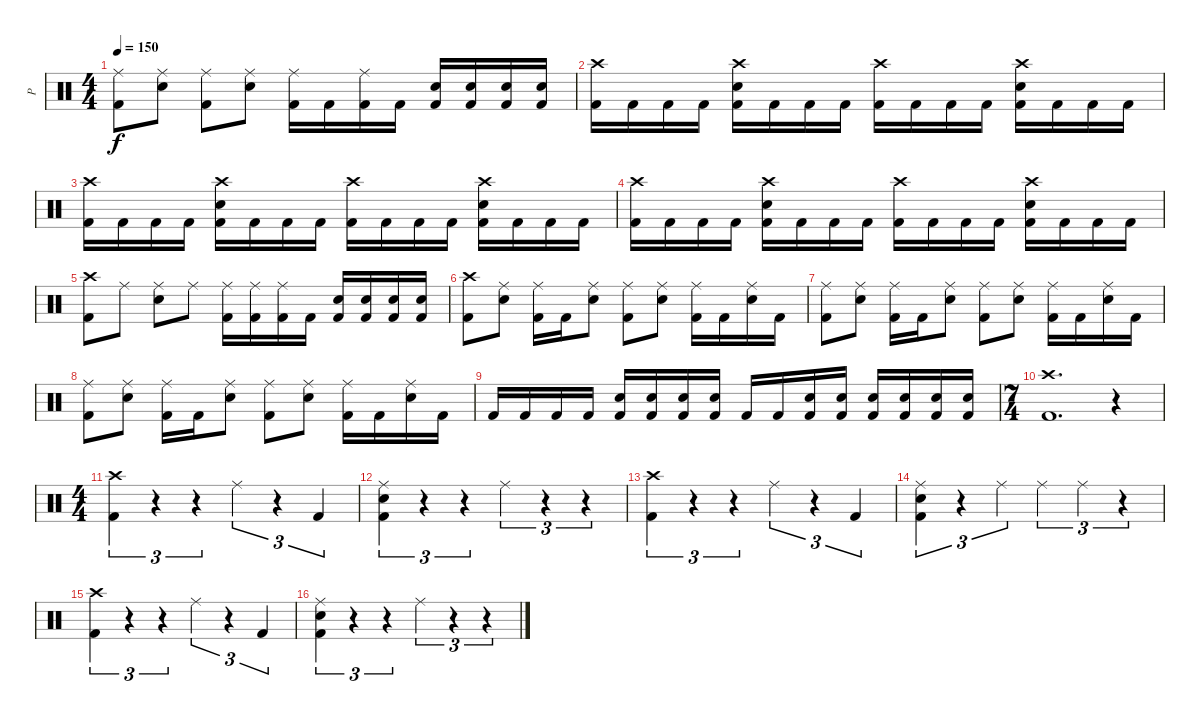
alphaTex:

\track ("P" "P") {instrument percussion}
\staff {score}
\articulation defaults
\ts (4 4)
\tempo 150
\clef neutral
\ks c
("Ride (middle)" "Kick (hit) 2").8{dy f} ("Ride (middle)" "Electric Snare (hit)").8 ("Ride (middle)" "Kick (hit) 2").8 ("Ride (middle)" "Electric Snare (hit)").8 ("Ride (middle)" "Kick (hit) 2").16 "Kick (hit) 2".16 ("Ride (middle)" "Kick (hit) 2").16 "Kick (hit) 2".16 ("Electric Snare (hit)" "Kick (hit) 2").16 ("Electric Snare (hit)" "Kick (hit) 2").16 ("Electric Snare (hit)" "Kick (hit) 2").16 ("Electric Snare (hit)" "Kick (hit) 2").16 |
("Crash high (hit)" "Kick (hit) 2").16 "Kick (hit) 2".16 "Kick (hit) 2".16 "Kick (hit) 2".16 ("Crash high (hit)" "Electric Snare (hit)" "Kick (hit) 2").16 "Kick (hit) 2".16 "Kick (hit) 2".16 "Kick (hit) 2".16 ("Crash high (hit)" "Kick (hit) 2").16 "Kick (hit) 2".16 "Kick (hit) 2".16 "Kick (hit) 2".16 ("Crash high (hit)" "Electric Snare (hit)" "Kick (hit) 2").16 "Kick (hit) 2".16 "Kick (hit) 2".16 "Kick (hit) 2".16 |
("Crash high (hit)" "Kick (hit) 2").16 "Kick (hit) 2".16 "Kick (hit) 2".16 "Kick (hit) 2".16 ("Crash high (hit)" "Electric Snare (hit)" "Kick (hit) 2").16 "Kick (hit) 2".16 "Kick (hit) 2".16 "Kick (hit) 2".16 ("Crash high (hit)" "Kick (hit) 2").16 "Kick (hit) 2".16 "Kick (hit) 2".16 "Kick (hit) 2".16 ("Crash high (hit)" "Electric Snare (hit)" "Kick (hit) 2").16 "Kick (hit) 2".16 "Kick (hit) 2".16 "Kick (hit) 2".16 |
("Crash high (hit)" "Kick (hit) 2").16 "Kick (hit) 2".16 "Kick (hit) 2".16 "Kick (hit) 2".16 ("Crash high (hit)" "Electric Snare (hit)" "Kick (hit) 2").16 "Kick (hit) 2".16 "Kick (hit) 2".16 "Kick (hit) 2".16 ("Crash high (hit)" "Kick (hit) 2").16 "Kick (hit) 2".16 "Kick (hit) 2".16 "Kick (hit) 2".16 ("Crash high (hit)" "Electric Snare (hit)" "Kick (hit) 2").16 "Kick (hit) 2".16 "Kick (hit) 2".16 "Kick (hit) 2".16 |
("Crash high (hit)" "Kick (hit) 2").8 "Ride (middle)".8 ("Ride (middle)" "Electric Snare (hit)").8 "Ride (middle)".8 ("Ride (middle)" "Kick (hit) 2").16 ("Ride (middle)" "Kick (hit) 2").16 ("Ride (middle)" "Kick (hit) 2").16 "Kick (hit) 2".16 ("Electric Snare (hit)" "Kick (hit) 2").16 ("Electric Snare (hit)" "Kick (hit) 2").16 ("Electric Snare (hit)" "Kick (hit) 2").16 ("Electric Snare (hit)" "Kick (hit) 2").16 |
("Crash high (hit)" "Kick (hit) 2").8 ("Ride (middle)" "Electric Snare (hit)").8 ("Ride (middle)" "Kick (hit) 2").16 "Kick (hit) 2".16 ("Ride (middle)" "Electric Snare (hit)").8 ("Ride (middle)" "Kick (hit) 2").8 ("Ride (middle)" "Electric Snare (hit)").8 ("Ride (middle)" "Kick (hit) 2").16 "Kick (hit) 2".16 ("Ride (middle)" "Electric Snare (hit)").16 "Kick (hit) 2".16 |
("Ride (middle)" "Kick (hit) 2").8 ("Ride (middle)" "Electric Snare (hit)").8 ("Ride (middle)" "Kick (hit) 2").16 "Kick (hit) 2".16 ("Ride (middle)" "Electric Snare (hit)").8 ("Ride (middle)" "Kick (hit) 2").8 ("Ride (middle)" "Electric Snare (hit)").8 ("Ride (middle)" "Kick (hit) 2").16 "Kick (hit) 2".16 ("Ride (middle)" "Electric Snare (hit)").16 "Kick (hit) 2".16 |
("Ride (middle)" "Kick (hit) 2").8 ("Ride (middle)" "Electric Snare (hit)").8 ("Ride (middle)" "Kick (hit) 2").16 "Kick (hit) 2".16 ("Ride (middle)" "Electric Snare (hit)").8 ("Ride (middle)" "Kick (hit) 2").8 ("Ride (middle)" "Electric Snare (hit)").8 ("Ride (middle)" "Kick (hit) 2").16 "Kick (hit) 2".16 ("Ride (middle)" "Electric Snare (hit)").16 "Kick (hit) 2".16 |
"Kick (hit) 2".16 "Kick (hit) 2".16 "Kick (hit) 2".16 "Kick (hit) 2".16 ("Electric Snare (hit)" "Kick (hit) 2").16 ("Electric Snare (hit)" "Kick (hit) 2").16 ("Electric Snare (hit)" "Kick (hit) 2").16 ("Electric Snare (hit)" "Kick (hit) 2").16 "Kick (hit) 2".16 "Kick (hit) 2".16 ("Electric Snare (hit)" "Kick (hit) 2").16 ("Electric Snare (hit)" "Kick (hit) 2").16 ("Electric Snare (hit)" "Kick (hit) 2").16 ("Electric Snare (hit)" "Kick (hit) 2").16 ("Electric Snare (hit)" "Kick (hit) 2").16 ("Electric Snare (hit)" "Kick (hit) 2").16 |
\ts (7 4)
("Crash high (hit)" "Kick (hit) 2").1{d} r.4 |
\ts (4 4)
("Crash high (hit)" "Kick (hit) 2").4{tu (3 2)} r.4{tu (3 2)} r.4{tu (3 2)} "Ride (middle)".4{tu (3 2)} r.4{tu (3 2)} "Kick (hit) 2".4{tu (3 2)} |
("Ride (middle)" "Electric Snare (hit)" "Kick (hit) 2").4{tu (3 2)} r.4{tu (3 2)} r.4{tu (3 2)} "Ride (middle)".4{tu (3 2)} r.4{tu (3 2)} r.4{tu (3 2)} |
("Crash high (hit)" "Kick (hit) 2").4{tu (3 2)} r.4{tu (3 2)} r.4{tu (3 2)} "Ride (middle)".4{tu (3 2)} r.4{tu (3 2)} "Kick (hit) 2".4{tu (3 2)} |
("Ride (middle)" "Electric Snare (hit)" "Kick (hit) 2").4{tu (3 2)} r.4{tu (3 2)} "Ride (middle)".4{tu (3 2)} "Ride (middle)".4{tu (3 2)} "Ride (middle)".4{tu (3 2)} r.4{tu (3 2)} |
("Crash high (hit)" "Kick (hit) 2").4{tu (3 2)} r.4{tu (3 2)} r.4{tu (3 2)} "Ride (middle)".4{tu (3 2)} r.4{tu (3 2)} "Kick (hit) 2".4{tu (3 2)} |
("Ride (middle)" "Electric Snare (hit)" "Kick (hit) 2").4{tu (3 2)} r.4{tu (3 2)} r.4{tu (3 2)} "Ride (middle)".4{tu (3 2)} r.4{tu (3 2)} r.4{tu (3 2)}
